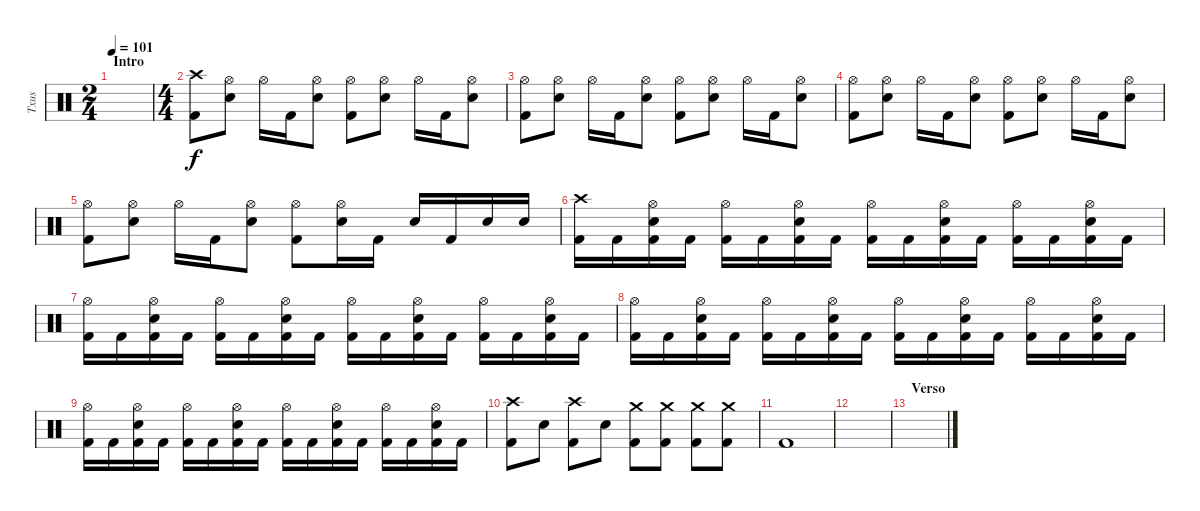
\track ("Txus" "Txus") {instrument percussion}
\staff {score}
\articulation defaults
\ts (2 4)
\section ("" "Intro")
\tempo 101
\clef neutral
\ks c
|
\ts (4 4)
("Kick (hit) 2" "Crash high (hit)").8 ("Electric Snare (hit)" "Hi-Hat (open)").8 "Hi-Hat (open)".16 "Kick (hit) 2".16 ("Electric Snare (hit)" "Hi-Hat (open)").8 ("Kick (hit) 2" "Hi-Hat (open)").8 ("Electric Snare (hit)" "Hi-Hat (open)").8 "Hi-Hat (open)".16 "Kick (hit) 2".16 ("Electric Snare (hit)" "Hi-Hat (open)").8 |
("Kick (hit) 2" "Hi-Hat (open)").8 ("Electric Snare (hit)" "Hi-Hat (open)").8 "Hi-Hat (open)".16 "Kick (hit) 2".16 ("Electric Snare (hit)" "Hi-Hat (open)").8 ("Kick (hit) 2" "Hi-Hat (open)").8 ("Electric Snare (hit)" "Hi-Hat (open)").8 "Hi-Hat (open)".16 "Kick (hit) 2".16 ("Electric Snare (hit)" "Hi-Hat (open)").8 |
("Kick (hit) 2" "Hi-Hat (open)").8 ("Electric Snare (hit)" "Hi-Hat (open)").8 "Hi-Hat (open)".16 "Kick (hit) 2".16 ("Electric Snare (hit)" "Hi-Hat (open)").8 ("Kick (hit) 2" "Hi-Hat (open)").8 ("Electric Snare (hit)" "Hi-Hat (open)").8 "Hi-Hat (open)".16 "Kick (hit) 2".16 ("Electric Snare (hit)" "Hi-Hat (open)").8 |
("Kick (hit) 2" "Hi-Hat (open)").8 ("Electric Snare (hit)" "Hi-Hat (open)").8 "Hi-Hat (open)".16 "Kick (hit) 2".16 ("Electric Snare (hit)" "Hi-Hat (open)").8 ("Kick (hit) 2" "Hi-Hat (open)").8 ("Electric Snare (hit)" "Hi-Hat (open)").16 "Kick (hit) 2".16 "Electric Snare (hit)".16 "Kick (hit) 2".16 "Electric Snare (hit)".16 "Electric Snare (hit)".16 |
("Kick (hit) 2" "Crash high (hit)").16 "Kick (hit) 2".16 ("Kick (hit) 2" "Electric Snare (hit)" "Hi-Hat (open)").16 "Kick (hit) 2".16 ("Kick (hit) 2" "Hi-Hat (open)").16 "Kick (hit) 2".16 ("Kick (hit) 2" "Electric Snare (hit)" "Hi-Hat (open)").16 "Kick (hit) 2".16 ("Kick (hit) 2" "Hi-Hat (open)").16 "Kick (hit) 2".16 ("Kick (hit) 2" "Electric Snare (hit)" "Hi-Hat (open)").16 "Kick (hit) 2".16 ("Kick (hit) 2" "Hi-Hat (open)").16 "Kick (hit) 2".16 ("Kick (hit) 2" "Electric Snare (hit)" "Hi-Hat (open)").16 "Kick (hit) 2".16 |
("Kick (hit) 2" "Hi-Hat (open)").16 "Kick (hit) 2".16 ("Kick (hit) 2" "Electric Snare (hit)" "Hi-Hat (open)").16 "Kick (hit) 2".16 ("Kick (hit) 2" "Hi-Hat (open)").16 "Kick (hit) 2".16 ("Kick (hit) 2" "Electric Snare (hit)" "Hi-Hat (open)").16 "Kick (hit) 2".16 ("Kick (hit) 2" "Hi-Hat (open)").16 "Kick (hit) 2".16 ("Kick (hit) 2" "Electric Snare (hit)" "Hi-Hat (open)").16 "Kick (hit) 2".16 ("Kick (hit) 2" "Hi-Hat (open)").16 "Kick (hit) 2".16 ("Kick (hit) 2" "Electric Snare (hit)" "Hi-Hat (open)").16 "Kick (hit) 2".16 |
("Kick (hit) 2" "Hi-Hat (open)").16 "Kick (hit) 2".16 ("Kick (hit) 2" "Electric Snare (hit)" "Hi-Hat (open)").16 "Kick (hit) 2".16 ("Kick (hit) 2" "Hi-Hat (open)").16 "Kick (hit) 2".16 ("Kick (hit) 2" "Electric Snare (hit)" "Hi-Hat (open)").16 "Kick (hit) 2".16 ("Kick (hit) 2" "Hi-Hat (open)").16 "Kick (hit) 2".16 ("Kick (hit) 2" "Electric Snare (hit)" "Hi-Hat (open)").16 "Kick (hit) 2".16 ("Kick (hit) 2" "Hi-Hat (open)").16 "Kick (hit) 2".16 ("Kick (hit) 2" "Electric Snare (hit)" "Hi-Hat (open)").16 "Kick (hit) 2".16 |
("Kick (hit) 2" "Hi-Hat (open)").16 "Kick (hit) 2".16 ("Kick (hit) 2" "Electric Snare (hit)" "Hi-Hat (open)").16 "Kick (hit) 2".16 ("Kick (hit) 2" "Hi-Hat (open)").16 "Kick (hit) 2".16 ("Kick (hit) 2" "Electric Snare (hit)" "Hi-Hat (open)").16 "Kick (hit) 2".16 ("Kick (hit) 2" "Hi-Hat (open)").16 "Kick (hit) 2".16 ("Kick (hit) 2" "Electric Snare (hit)" "Hi-Hat (open)").16 "Kick (hit) 2".16 ("Kick (hit) 2" "Hi-Hat (open)").16 "Kick (hit) 2".16 ("Kick (hit) 2" "Electric Snare (hit)" "Hi-Hat (open)").16 "Kick (hit) 2".16 |
("Kick (hit) 2" "Crash high (hit)").8 "Electric Snare (hit)".8 ("Kick (hit) 2" "Crash high (hit)").8 "Electric Snare (hit)".8 ("Kick (hit) 2" "Crash medium (hit)").8 ("Kick (hit) 2" "Crash medium (hit)").8 ("Kick (hit) 2" "Crash medium (hit)").8 ("Kick (hit) 2" "Crash medium (hit)").8 |
"Kick (hit) 2".1 |
|
\section ("" "Verso")
